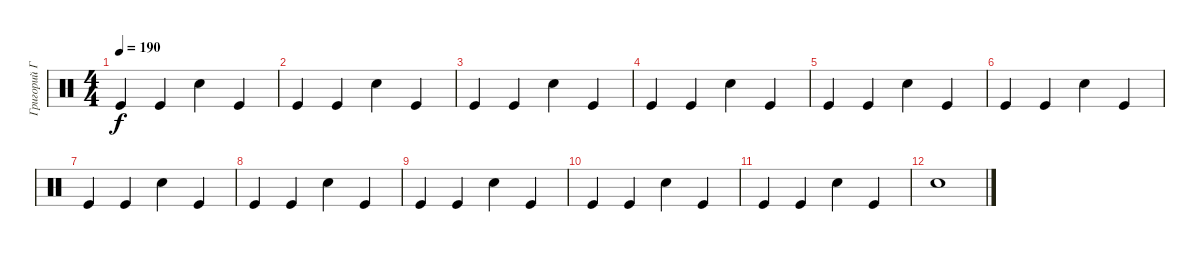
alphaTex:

\track ("Григорий Габерман" "Григорий Г") {instrument percussion}
\staff {score}
\articulation defaults
\ts (4 4)
\tempo 190
\clef neutral
\ks c "Kick (hit)".4{dy f} "Kick (hit)".4 "Snare (hit) 2".4 "Kick (hit)".4
|
"Kick (hit)".4 "Kick (hit)".4 "Snare (hit) 2".4 "Kick (hit)".4 |
"Kick (hit)".4 "Kick (hit)".4 "Snare (hit) 2".4 "Kick (hit)".4 |
"Kick (hit)".4 "Kick (hit)".4 "Snare (hit) 2".4 "Kick (hit)".4 |
"Kick (hit)".4 "Kick (hit)".4 "Snare (hit) 2".4 "Kick (hit)".4 |
"Kick (hit)".4 "Kick (hit)".4 "Snare (hit) 2".4 "Kick (hit)".4 |
"Kick (hit)".4 "Kick (hit)".4 "Snare (hit) 2".4 "Kick (hit)".4 |
"Kick (hit)".4 "Kick (hit)".4 "Snare (hit) 2".4 "Kick (hit)".4 |
"Kick (hit)".4 "Kick (hit)".4 "Snare (hit) 2".4 "Kick (hit)".4 |
"Kick (hit)".4 "Kick (hit)".4 "Snare (hit) 2".4 "Kick (hit)".4 |
"Kick (hit)".4 "Kick (hit)".4 "Snare (hit) 2".4 "Kick (hit)".4 |
"Snare (hit) 2".1
